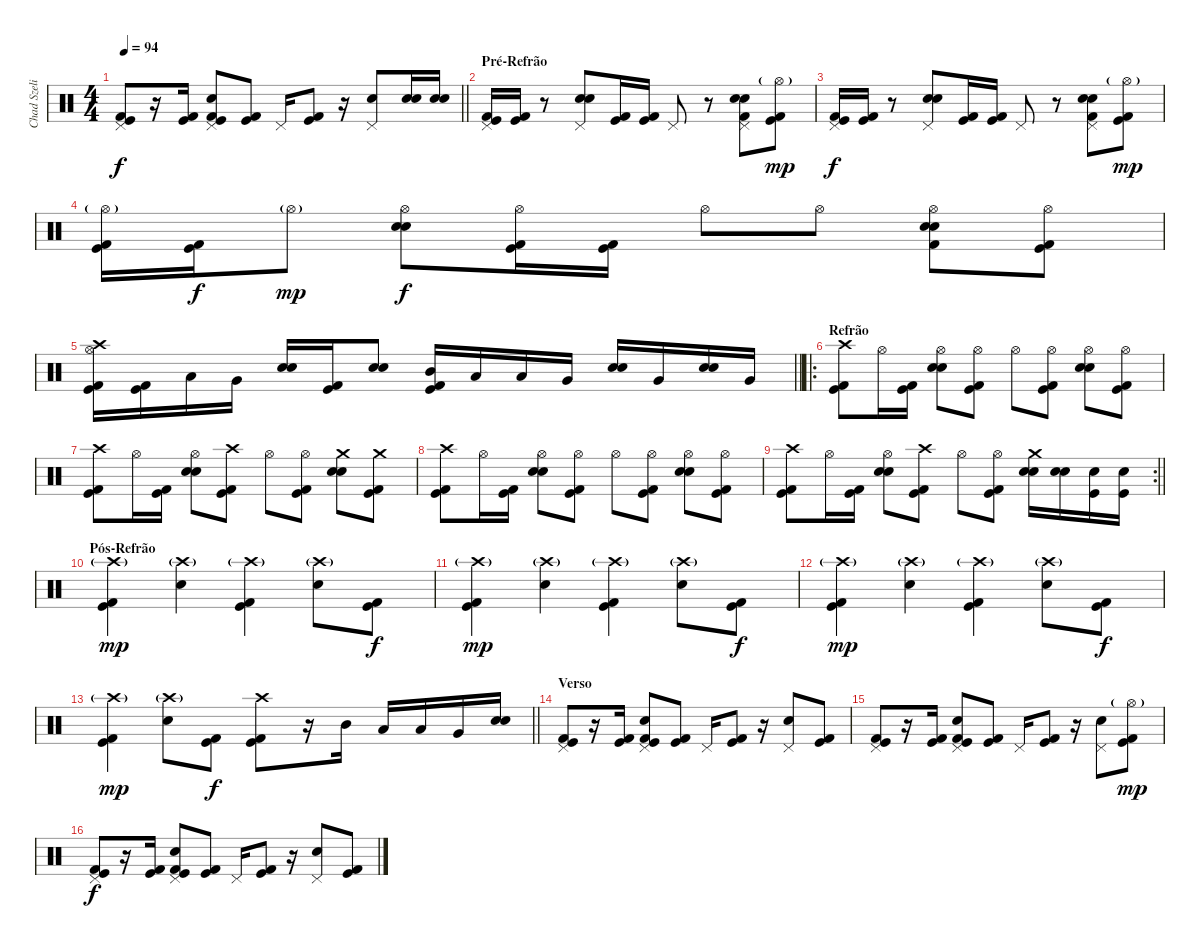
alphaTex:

\track ("Chad Szeliga" "Chad Szeli") {instrument percussion}
\staff {score}
\articulation defaults
\ts (4 4)
\tempo 94
\clef neutral
\barLineRight lightlight
\ks c
("Kick (hit) 2" "Kick (hit)" "Pedal Hi-Hat (hit)").8{dy f} r.16 ("Kick (hit) 2" "Kick (hit)").16 ("Kick (hit) 2" "Kick (hit)" "Snare (hit) 2" "Pedal Hi-Hat (hit)").8 ("Kick (hit) 2" "Kick (hit)").8 "Pedal Hi-Hat (hit)".16 ("Kick (hit) 2" "Kick (hit)").8 r.16 ("Snare (hit) 2" "Pedal Hi-Hat (hit)").8 ("Snare (hit) 2" "Snare (hit) 2").16 ("Snare (hit) 2" "Snare (hit) 2").16 |
\section ("" "Pré-Refrão")
("Kick (hit) 2" "Kick (hit)" "Pedal Hi-Hat (hit)").16 ("Kick (hit) 2" "Kick (hit)").16 r.8 ("Snare (hit) 2" "Snare (hit) 2" "Pedal Hi-Hat (hit)").8 ("Kick (hit) 2" "Kick (hit)").16 ("Kick (hit) 2" "Kick (hit)").16 "Pedal Hi-Hat (hit)".8 r.8 ("Kick (hit) 2" "Snare (hit) 2" "Snare (hit) 2" "Pedal Hi-Hat (hit)").8 ("Kick (hit) 2" "Kick (hit)" "Hi-Hat (open)"{g}).8{dy mp} |
("Kick (hit) 2" "Kick (hit)" "Pedal Hi-Hat (hit)").16{dy f} ("Kick (hit) 2" "Kick (hit)").16 r.8 ("Snare (hit) 2" "Snare (hit) 2" "Pedal Hi-Hat (hit)").8 ("Kick (hit) 2" "Kick (hit)").16 ("Kick (hit) 2" "Kick (hit)").16 "Pedal Hi-Hat (hit)".8 r.8 ("Kick (hit) 2" "Snare (hit) 2" "Snare (hit) 2" "Pedal Hi-Hat (hit)").8 ("Kick (hit) 2" "Kick (hit)" "Hi-Hat (open)"{g}).8{dy mp} |
("Kick (hit) 2" "Kick (hit)" "Hi-Hat (open)"{g}).16 ("Kick (hit) 2" "Kick (hit)").16{dy f} "Hi-Hat (open)"{g}.8{dy mp} ("Snare (hit) 2" "Snare (hit) 2" "Hi-Hat (open)").8{dy f} ("Kick (hit) 2" "Kick (hit)" "Hi-Hat (open)").16 ("Kick (hit) 2" "Kick (hit)").16 "Hi-Hat (open)".8 "Hi-Hat (open)".8 ("Kick (hit) 2" "Snare (hit) 2" "Snare (hit) 2" "Hi-Hat (open)").8 ("Kick (hit) 2" "Kick (hit)" "Hi-Hat (open)").8 |
\barLineRight lightlight
("Crash high (hit)" "Kick (hit) 2" "Kick (hit)" "Hi-Hat (open)").16 ("Kick (hit) 2" "Kick (hit)").16 "Low Tom (hit)".16 "Very Low Tom (hit)".16 ("Snare (hit) 2" "Snare (hit) 2").16 ("Kick (hit) 2" "Kick (hit)").16 ("Snare (hit) 2" "Snare (hit) 2").8 ("Kick (hit) 2" "Kick (hit)" "Mid Tom (hit)").16 "Low Tom (hit)".16 "Low Tom (hit)".16 "Very Low Tom (hit)".16 ("Snare (hit) 2" "Snare (hit) 2").16 "Very Low Tom (hit)".16 ("Snare (hit) 2" "Snare (hit) 2").16 "Very Low Tom (hit)".16 |
\ro
\section ("" "Refrão")
("Crash high (hit)" "Kick (hit) 2" "Kick (hit)").8 "Hi-Hat (open)".16 ("Kick (hit) 2" "Kick (hit)").16 ("Snare (hit) 2" "Snare (hit) 2" "Hi-Hat (open)").8 ("Kick (hit) 2" "Kick (hit)" "Hi-Hat (open)").8 "Hi-Hat (open)".8 ("Kick (hit) 2" "Kick (hit)" "Hi-Hat (open)").8 ("Snare (hit) 2" "Snare (hit) 2" "Hi-Hat (open)").8 ("Kick (hit) 2" "Kick (hit)" "Hi-Hat (open)").8 |
("Crash high (hit)" "Kick (hit) 2" "Kick (hit)").8 "Hi-Hat (open)".16 ("Kick (hit) 2" "Kick (hit)").16 ("Snare (hit) 2" "Snare (hit) 2" "Hi-Hat (open)").8 ("Crash high (hit)" "Kick (hit) 2" "Kick (hit)").8 "Hi-Hat (open)".8 ("Kick (hit) 2" "Kick (hit)" "Hi-Hat (open)").8 ("Crash medium (hit)" "Snare (hit) 2" "Snare (hit) 2").8 ("Crash medium (hit)" "Kick (hit) 2" "Kick (hit)").8 |
("Crash high (hit)" "Kick (hit) 2" "Kick (hit)").8 "Hi-Hat (open)".16 ("Kick (hit) 2" "Kick (hit)").16 ("Snare (hit) 2" "Snare (hit) 2" "Hi-Hat (open)").8 ("Kick (hit) 2" "Kick (hit)" "Hi-Hat (open)").8 "Hi-Hat (open)".8 ("Kick (hit) 2" "Kick (hit)" "Hi-Hat (open)").8 ("Snare (hit) 2" "Snare (hit) 2" "Hi-Hat (open)").8 ("Kick (hit) 2" "Kick (hit)" "Hi-Hat (open)").8 |
\rc 2
\barLineRight lightlight
("Crash high (hit)" "Kick (hit) 2" "Kick (hit)").8 "Hi-Hat (open)".16 ("Kick (hit) 2" "Kick (hit)").16 ("Snare (hit) 2" "Snare (hit) 2" "Hi-Hat (open)").8 ("Crash high (hit)" "Kick (hit) 2" "Kick (hit)").8 "Hi-Hat (open)".8 ("Kick (hit) 2" "Kick (hit)" "Hi-Hat (open)").8 ("Crash medium (hit)" "Snare (hit) 2" "Snare (hit) 2").16 ("Snare (hit) 2" "Snare (hit) 2").16 ("Kick (hit)" "Snare (hit) 2").16 ("Kick (hit)" "Snare (hit) 2").16 |
\section ("" "Pós-Refrão")
("Crash high (hit)"{g} "Kick (hit) 2" "Kick (hit)").4{dy mp} ("Crash high (hit)"{g} "Snare (hit) 2").4 ("Crash high (hit)"{g} "Kick (hit) 2" "Kick (hit)").4 ("Crash high (hit)"{g} "Snare (hit) 2").8 ("Kick (hit) 2" "Kick (hit)").8{dy f} |
("Crash high (hit)"{g} "Kick (hit) 2" "Kick (hit)").4{dy mp} ("Crash high (hit)"{g} "Snare (hit) 2").4 ("Crash high (hit)"{g} "Kick (hit) 2" "Kick (hit)").4 ("Crash high (hit)"{g} "Snare (hit) 2").8 ("Kick (hit) 2" "Kick (hit)").8{dy f} |
("Crash high (hit)"{g} "Kick (hit) 2" "Kick (hit)").4{dy mp} ("Crash high (hit)"{g} "Snare (hit) 2").4 ("Crash high (hit)"{g} "Kick (hit) 2" "Kick (hit)").4 ("Crash high (hit)"{g} "Snare (hit) 2").8 ("Kick (hit) 2" "Kick (hit)").8{dy f} |
\barLineRight lightlight
("Crash high (hit)"{g} "Kick (hit) 2" "Kick (hit)").4{dy mp} ("Crash high (hit)"{g} "Snare (hit) 2").8 ("Kick (hit) 2" "Kick (hit)").8{dy f} ("Crash high (hit)" "Kick (hit) 2" "Kick (hit)").8 r.16 "Mid Tom (hit)".16 "Low Tom (hit)".16 "Low Tom (hit)".16 "Very Low Tom (hit)".16 ("Snare (hit) 2" "Snare (hit) 2").16 |
\section ("" "Verso")
("Kick (hit) 2" "Kick (hit)" "Pedal Hi-Hat (hit)").8 r.16 ("Kick (hit) 2" "Kick (hit)").16 ("Kick (hit) 2" "Kick (hit)" "Snare (hit) 2" "Pedal Hi-Hat (hit)").8 ("Kick (hit) 2" "Kick (hit)").8 "Pedal Hi-Hat (hit)".16 ("Kick (hit) 2" "Kick (hit)").8 r.16 ("Snare (hit) 2" "Pedal Hi-Hat (hit)").8 ("Kick (hit) 2" "Kick (hit)").8 |
("Kick (hit) 2" "Kick (hit)" "Pedal Hi-Hat (hit)").8 r.16 ("Kick (hit) 2" "Kick (hit)").16 ("Kick (hit) 2" "Kick (hit)" "Snare (hit) 2" "Pedal Hi-Hat (hit)").8 ("Kick (hit) 2" "Kick (hit)").8 "Pedal Hi-Hat (hit)".16 ("Kick (hit) 2" "Kick (hit)").8 r.16 ("Snare (hit) 2" "Pedal Hi-Hat (hit)").8 ("Kick (hit) 2" "Kick (hit)" "Hi-Hat (open)"{g}).8{dy mp} |
("Kick (hit) 2" "Kick (hit)" "Pedal Hi-Hat (hit)").8{dy f} r.16 ("Kick (hit) 2" "Kick (hit)").16 ("Kick (hit) 2" "Kick (hit)" "Snare (hit) 2" "Pedal Hi-Hat (hit)").8 ("Kick (hit) 2" "Kick (hit)").8 "Pedal Hi-Hat (hit)".16 ("Kick (hit) 2" "Kick (hit)").8 r.16 ("Snare (hit) 2" "Pedal Hi-Hat (hit)").8 ("Kick (hit) 2" "Kick (hit)").8
